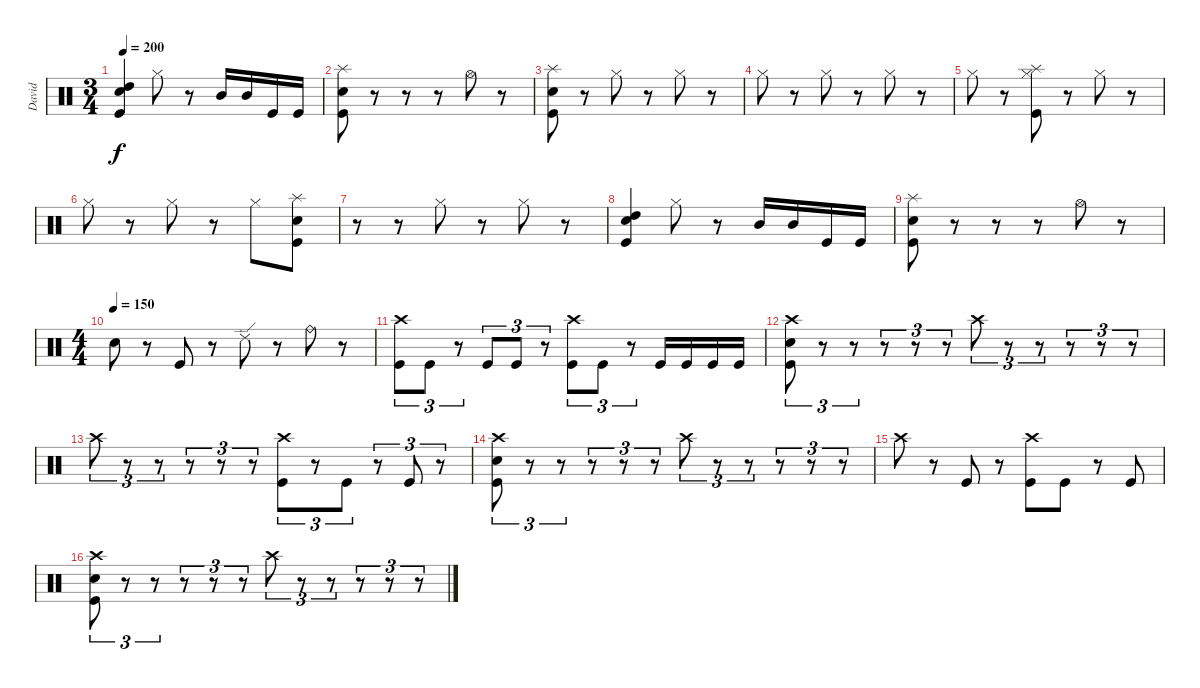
\track ("David" "David") {instrument percussion}
\staff {score}
\articulation defaults
\ts (3 4)
\tempo 200
\clef neutral
\ks c
("High Tom (hit)" "Electric Snare (hit)" "Kick (hit)").4{dy f} "Hi-Hat (closed)".8 r.8 "Mid Tom (hit)".16 "Mid Tom (hit)".16 "Kick (hit)".16 "Kick (hit)".16 |
("Splash (hit)" "Electric Snare (hit)" "Kick (hit)").8 r.8 r.8 r.8 "Hi-Hat (open)".8 r.8 |
("Splash (hit)" "Electric Snare (hit)" "Kick (hit)").8 r.8 "Hi-Hat (closed)".8 r.8 "Hi-Hat (closed)".8 r.8 |
"Hi-Hat (closed)".8 r.8 "Hi-Hat (closed)".8 r.8 "Hi-Hat (closed)".8 r.8 |
"Hi-Hat (closed)".8 r.8 ("Splash (hit)" "Hi-Hat (closed)" "Kick (hit)").8 r.8 "Hi-Hat (closed)".8 r.8 |
"Hi-Hat (closed)".8 r.8 "Hi-Hat (closed)".8 r.8 "Hi-Hat (closed)".8 ("Splash (hit)" "Electric Snare (hit)" "Kick (hit)").8 |
r.8 r.8 "Hi-Hat (closed)".8 r.8 "Hi-Hat (closed)".8 r.8 |
("High Tom (hit)" "Electric Snare (hit)" "Kick (hit)").4 "Hi-Hat (closed)".8 r.8 "Mid Tom (hit)".16 "Mid Tom (hit)".16 "Kick (hit)".16 "Kick (hit)".16 |
("Splash (hit)" "Electric Snare (hit)" "Kick (hit)").8 r.8 r.8 r.8 "Hi-Hat (open)".8 r.8 |
\ts (4 4)
\tempo (150)
"Electric Snare (hit)".8 r.8 "Kick (hit)".8 r.8 "Ride (edge) 2".8 r.8 "Ride (bell)".8 r.8 |
("Crash high (hit)" "Kick (hit)").8{tu (3 2)} "Kick (hit)".8{tu (3 2)} r.8{tu (3 2)} "Kick (hit)".8{tu (3 2)} "Kick (hit)".8{tu (3 2)} r.8{tu (3 2)} ("Crash high (hit)" "Kick (hit)").8{tu (3 2)} "Kick (hit)".8{tu (3 2)} r.8{tu (3 2)} "Kick (hit)".16 "Kick (hit)".16 "Kick (hit)".16 "Kick (hit)".16 |
("Crash high (hit)" "Electric Snare (hit)" "Kick (hit)").8{tu (3 2)} r.8{tu (3 2)} r.8{tu (3 2)} r.8{tu (3 2)} r.8{tu (3 2)} r.8{tu (3 2)} "Crash high (hit)".8{tu (3 2)} r.8{tu (3 2)} r.8{tu (3 2)} r.8{tu (3 2)} r.8{tu (3 2)} r.8{tu (3 2)} |
"Crash high (hit)".8{tu (3 2)} r.8{tu (3 2)} r.8{tu (3 2)} r.8{tu (3 2)} r.8{tu (3 2)} r.8{tu (3 2)} ("Crash high (hit)" "Kick (hit)").8{tu (3 2)} r.8{tu (3 2)} "Kick (hit)".8{tu (3 2)} r.8{tu (3 2)} "Kick (hit)".8{tu (3 2)} r.8{tu (3 2)} |
("Crash high (hit)" "Electric Snare (hit)" "Kick (hit)").8{tu (3 2)} r.8{tu (3 2)} r.8{tu (3 2)} r.8{tu (3 2)} r.8{tu (3 2)} r.8{tu (3 2)} "Crash high (hit)".8{tu (3 2)} r.8{tu (3 2)} r.8{tu (3 2)} r.8{tu (3 2)} r.8{tu (3 2)} r.8{tu (3 2)} |
"Crash high (hit)".8 r.8 "Kick (hit)".8 r.8 ("Crash high (hit)" "Kick (hit)").8 "Kick (hit)".8 r.8 "Kick (hit)".8 |
("Crash high (hit)" "Electric Snare (hit)" "Kick (hit)").8{tu (3 2)} r.8{tu (3 2)} r.8{tu (3 2)} r.8{tu (3 2)} r.8{tu (3 2)} r.8{tu (3 2)} "Crash high (hit)".8{tu (3 2)} r.8{tu (3 2)} r.8{tu (3 2)} r.8{tu (3 2)} r.8{tu (3 2)} r.8{tu (3 2)}
